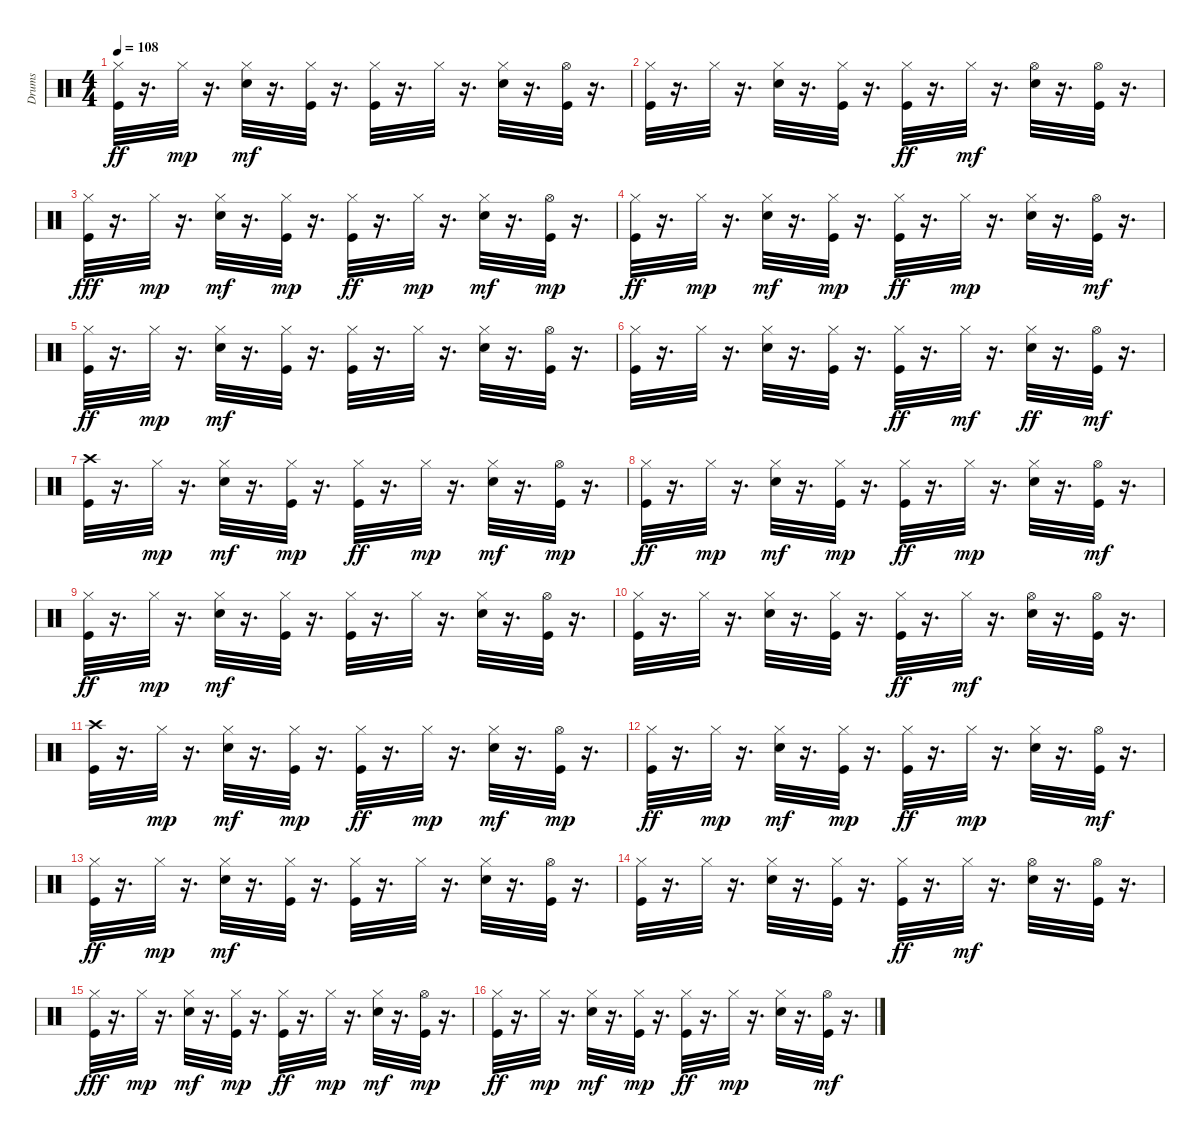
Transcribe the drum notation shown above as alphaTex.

\track ("Drums" "Drums") {instrument percussion}
\staff {score}
\articulation defaults
\ts (4 4)
\tempo 108
\clef neutral
\ks c
("Kick (hit)" "Hi-Hat (closed)").32{dy ff} r.16{d} "Hi-Hat (closed)".32{dy mp} r.16{d} ("Electric Snare (hit)" "Hi-Hat (closed)").32{dy mf} r.16{d} ("Kick (hit)" "Hi-Hat (closed)").32 r.16{d} ("Kick (hit)" "Hi-Hat (closed)").32 r.16{d} "Hi-Hat (closed)".32 r.16{d} ("Electric Snare (hit)" "Hi-Hat (closed)").32 r.16{d} ("Kick (hit)" "Hi-Hat (open)").32 r.16{d} |
("Kick (hit)" "Hi-Hat (closed)").32 r.16{d} "Hi-Hat (closed)".32 r.16{d} ("Electric Snare (hit)" "Hi-Hat (closed)").32 r.16{d} ("Kick (hit)" "Hi-Hat (closed)").32 r.16{d} ("Kick (hit)" "Hi-Hat (closed)").32{dy ff} r.16{d} "Hi-Hat (closed)".32{dy mf} r.16{d} ("Electric Snare (hit)" "Hi-Hat (open)").32 r.16{d} ("Kick (hit)" "Hi-Hat (open)").32 r.16{d} |
("Kick (hit)" "Hi-Hat (closed)").32{dy fff} r.16{d} "Hi-Hat (closed)".32{dy mp} r.16{d} ("Electric Snare (hit)" "Hi-Hat (closed)").32{dy mf} r.16{d} ("Kick (hit)" "Hi-Hat (closed)").32{dy mp} r.16{d} ("Kick (hit)" "Hi-Hat (closed)").32{dy ff} r.16{d} "Hi-Hat (closed)".32{dy mp} r.16{d} ("Electric Snare (hit)" "Hi-Hat (closed)").32{dy mf} r.16{d} ("Kick (hit)" "Hi-Hat (open)").32{dy mp} r.16{d} |
("Kick (hit)" "Hi-Hat (closed)").32{dy ff} r.16{d} "Hi-Hat (closed)".32{dy mp} r.16{d} ("Electric Snare (hit)" "Hi-Hat (closed)").32{dy mf} r.16{d} ("Kick (hit)" "Hi-Hat (closed)").32{dy mp} r.16{d} ("Kick (hit)" "Hi-Hat (closed)").32{dy ff} r.16{d} "Hi-Hat (closed)".32{dy mp} r.16{d} ("Electric Snare (hit)" "Hi-Hat (closed)").32 r.16{d} ("Kick (hit)" "Hi-Hat (open)").32{dy mf} r.16{d} |
("Kick (hit)" "Hi-Hat (closed)").32{dy ff} r.16{d} "Hi-Hat (closed)".32{dy mp} r.16{d} ("Electric Snare (hit)" "Hi-Hat (closed)").32{dy mf} r.16{d} ("Kick (hit)" "Hi-Hat (closed)").32 r.16{d} ("Kick (hit)" "Hi-Hat (closed)").32 r.16{d} "Hi-Hat (closed)".32 r.16{d} ("Electric Snare (hit)" "Hi-Hat (closed)").32 r.16{d} ("Kick (hit)" "Hi-Hat (open)").32 r.16{d} |
("Kick (hit)" "Hi-Hat (closed)").32 r.16{d} "Hi-Hat (closed)".32 r.16{d} ("Electric Snare (hit)" "Hi-Hat (closed)").32 r.16{d} ("Kick (hit)" "Hi-Hat (closed)").32 r.16{d} ("Kick (hit)" "Hi-Hat (closed)").32{dy ff} r.16{d} "Hi-Hat (closed)".32{dy mf} r.16{d} ("Electric Snare (hit)" "Hi-Hat (closed)").32{dy ff} r.16{d} ("Kick (hit)" "Hi-Hat (open)").32{dy mf} r.16{d} |
("Kick (hit)" "Crash high (hit)").32 r.16{d} "Hi-Hat (closed)".32{dy mp} r.16{d} ("Electric Snare (hit)" "Hi-Hat (closed)").32{dy mf} r.16{d} ("Kick (hit)" "Hi-Hat (closed)").32{dy mp} r.16{d} ("Kick (hit)" "Hi-Hat (closed)").32{dy ff} r.16{d} "Hi-Hat (closed)".32{dy mp} r.16{d} ("Electric Snare (hit)" "Hi-Hat (closed)").32{dy mf} r.16{d} ("Kick (hit)" "Hi-Hat (open)").32{dy mp} r.16{d} |
("Kick (hit)" "Hi-Hat (closed)").32{dy ff} r.16{d} "Hi-Hat (closed)".32{dy mp} r.16{d} ("Electric Snare (hit)" "Hi-Hat (closed)").32{dy mf} r.16{d} ("Kick (hit)" "Hi-Hat (closed)").32{dy mp} r.16{d} ("Kick (hit)" "Hi-Hat (closed)").32{dy ff} r.16{d} "Hi-Hat (closed)".32{dy mp} r.16{d} ("Electric Snare (hit)" "Hi-Hat (closed)").32 r.16{d} ("Kick (hit)" "Hi-Hat (open)").32{dy mf} r.16{d} |
("Kick (hit)" "Hi-Hat (closed)").32{dy ff} r.16{d} "Hi-Hat (closed)".32{dy mp} r.16{d} ("Electric Snare (hit)" "Hi-Hat (closed)").32{dy mf} r.16{d} ("Kick (hit)" "Hi-Hat (closed)").32 r.16{d} ("Kick (hit)" "Hi-Hat (closed)").32 r.16{d} "Hi-Hat (closed)".32 r.16{d} ("Electric Snare (hit)" "Hi-Hat (closed)").32 r.16{d} ("Kick (hit)" "Hi-Hat (open)").32 r.16{d} |
("Kick (hit)" "Hi-Hat (closed)").32 r.16{d} "Hi-Hat (closed)".32 r.16{d} ("Electric Snare (hit)" "Hi-Hat (closed)").32 r.16{d} ("Kick (hit)" "Hi-Hat (closed)").32 r.16{d} ("Kick (hit)" "Hi-Hat (closed)").32{dy ff} r.16{d} "Hi-Hat (closed)".32{dy mf} r.16{d} ("Electric Snare (hit)" "Hi-Hat (open)").32 r.16{d} ("Kick (hit)" "Hi-Hat (open)").32 r.16{d} |
("Kick (hit)" "Crash high (hit)").32 r.16{d} "Hi-Hat (closed)".32{dy mp} r.16{d} ("Electric Snare (hit)" "Hi-Hat (closed)").32{dy mf} r.16{d} ("Kick (hit)" "Hi-Hat (closed)").32{dy mp} r.16{d} ("Kick (hit)" "Hi-Hat (closed)").32{dy ff} r.16{d} "Hi-Hat (closed)".32{dy mp} r.16{d} ("Electric Snare (hit)" "Hi-Hat (closed)").32{dy mf} r.16{d} ("Kick (hit)" "Hi-Hat (open)").32{dy mp} r.16{d} |
("Kick (hit)" "Hi-Hat (closed)").32{dy ff} r.16{d} "Hi-Hat (closed)".32{dy mp} r.16{d} ("Electric Snare (hit)" "Hi-Hat (closed)").32{dy mf} r.16{d} ("Kick (hit)" "Hi-Hat (closed)").32{dy mp} r.16{d} ("Kick (hit)" "Hi-Hat (closed)").32{dy ff} r.16{d} "Hi-Hat (closed)".32{dy mp} r.16{d} ("Electric Snare (hit)" "Hi-Hat (closed)").32 r.16{d} ("Kick (hit)" "Hi-Hat (open)").32{dy mf} r.16{d} |
("Kick (hit)" "Hi-Hat (closed)").32{dy ff} r.16{d} "Hi-Hat (closed)".32{dy mp} r.16{d} ("Electric Snare (hit)" "Hi-Hat (closed)").32{dy mf} r.16{d} ("Kick (hit)" "Hi-Hat (closed)").32 r.16{d} ("Kick (hit)" "Hi-Hat (closed)").32 r.16{d} "Hi-Hat (closed)".32 r.16{d} ("Electric Snare (hit)" "Hi-Hat (closed)").32 r.16{d} ("Kick (hit)" "Hi-Hat (open)").32 r.16{d} |
("Kick (hit)" "Hi-Hat (closed)").32 r.16{d} "Hi-Hat (closed)".32 r.16{d} ("Electric Snare (hit)" "Hi-Hat (closed)").32 r.16{d} ("Kick (hit)" "Hi-Hat (closed)").32 r.16{d} ("Kick (hit)" "Hi-Hat (closed)").32{dy ff} r.16{d} "Hi-Hat (closed)".32{dy mf} r.16{d} ("Electric Snare (hit)" "Hi-Hat (open)").32 r.16{d} ("Kick (hit)" "Hi-Hat (open)").32 r.16{d} |
("Kick (hit)" "Hi-Hat (closed)").32{dy fff} r.16{d} "Hi-Hat (closed)".32{dy mp} r.16{d} ("Electric Snare (hit)" "Hi-Hat (closed)").32{dy mf} r.16{d} ("Kick (hit)" "Hi-Hat (closed)").32{dy mp} r.16{d} ("Kick (hit)" "Hi-Hat (closed)").32{dy ff} r.16{d} "Hi-Hat (closed)".32{dy mp} r.16{d} ("Electric Snare (hit)" "Hi-Hat (closed)").32{dy mf} r.16{d} ("Kick (hit)" "Hi-Hat (open)").32{dy mp} r.16{d} |
("Kick (hit)" "Hi-Hat (closed)").32{dy ff} r.16{d} "Hi-Hat (closed)".32{dy mp} r.16{d} ("Electric Snare (hit)" "Hi-Hat (closed)").32{dy mf} r.16{d} ("Kick (hit)" "Hi-Hat (closed)").32{dy mp} r.16{d} ("Kick (hit)" "Hi-Hat (closed)").32{dy ff} r.16{d} "Hi-Hat (closed)".32{dy mp} r.16{d} ("Electric Snare (hit)" "Hi-Hat (closed)").32 r.16{d} ("Kick (hit)" "Hi-Hat (open)").32{dy mf} r.16{d}
